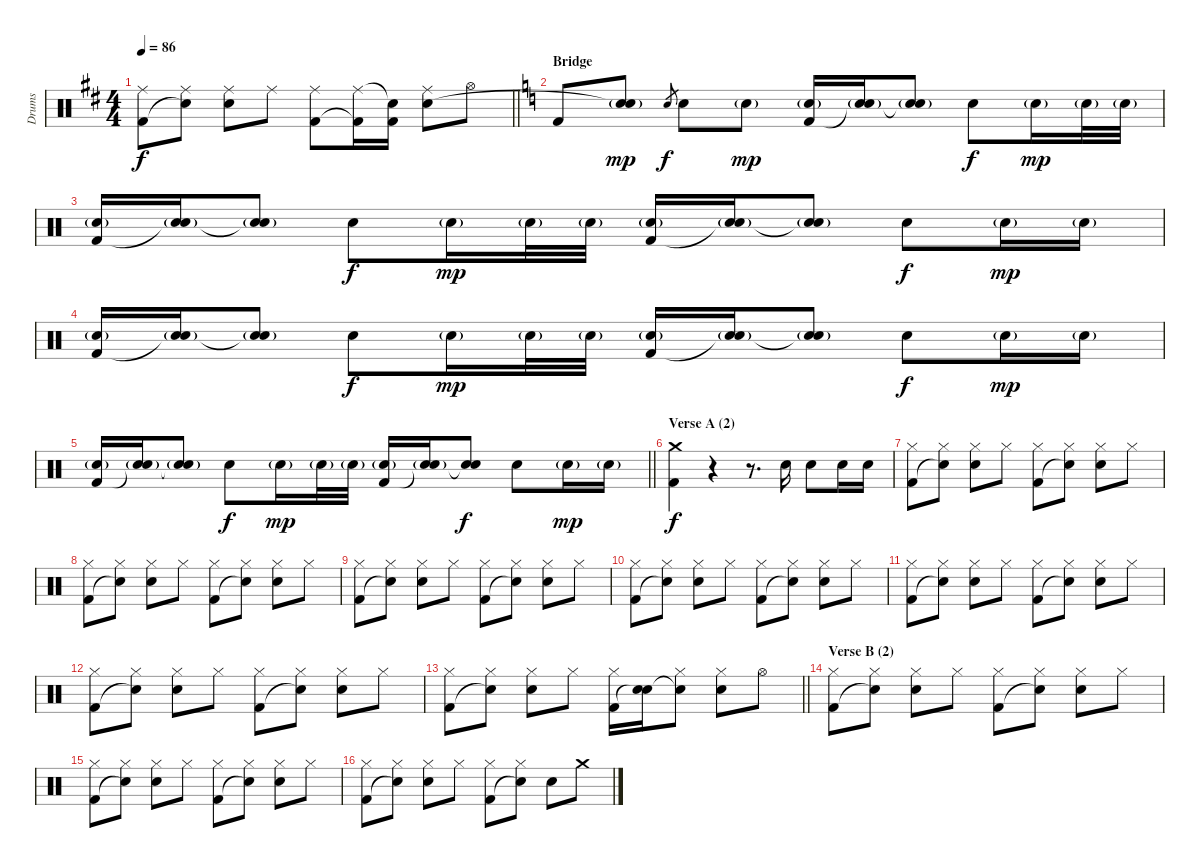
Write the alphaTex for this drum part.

\track ("Drums" "Drums") {instrument percussion}
\staff {score}
\articulation defaults
\ts (4 4)
\tempo 86
\clef neutral
\barLineRight lightlight
\ks bminor
("Ride (middle)" "Kick (hit) 2").8{dy f} ("Ride (middle)" "Snare (hit)"{t}).8 ("Ride (middle)" "Electric Snare (hit)").8 "Ride (middle)".8 ("Ride (middle)" "Kick (hit) 2").8 ("Ride (middle)" "Kick (hit) 2"{t}).16 ("Snare (hit)"{t} "Kick (hit) 2").16 ("Ride (middle)" "Electric Snare (hit)").8 "Hi-Hat (open)".8 |
\section ("" "Bridge")
\ks aminor "Kick (hit) 2".8
("Electric Snare (hit)"{g} "Snare (hit)"{t}).8{dy mp} "Electric Snare (hit)".8{gr dy f} "Electric Snare (hit)".8 "Electric Snare (hit)"{g}.8{dy mp} ("Electric Snare (hit)"{g} "Kick (hit) 2").16 ("Electric Snare (hit)"{g} "Snare (hit)"{t}).16 ("Electric Snare (hit)"{g} "Snare (hit)"{t}).8 "Electric Snare (hit)".8{dy f} "Electric Snare (hit)"{g}.16{dy mp} "Electric Snare (hit)"{g}.32 "Electric Snare (hit)"{g}.32 |
("Electric Snare (hit)"{g} "Kick (hit) 2").16 ("Electric Snare (hit)"{g} "Snare (hit)"{t}).16 ("Electric Snare (hit)"{g} "Snare (hit)"{t}).8 "Electric Snare (hit)".8{dy f} "Electric Snare (hit)"{g}.16{dy mp} "Electric Snare (hit)"{g}.32 "Electric Snare (hit)"{g}.32 ("Electric Snare (hit)"{g} "Kick (hit) 2").16 ("Electric Snare (hit)"{g} "Snare (hit)"{t}).16 ("Electric Snare (hit)"{g} "Snare (hit)"{t}).8 "Electric Snare (hit)".8{dy f} "Electric Snare (hit)"{g}.16{dy mp} "Electric Snare (hit)"{g}.16 |
("Electric Snare (hit)"{g} "Kick (hit) 2").16 ("Electric Snare (hit)"{g} "Snare (hit)"{t}).16 ("Electric Snare (hit)"{g} "Snare (hit)"{t}).8 "Electric Snare (hit)".8{dy f} "Electric Snare (hit)"{g}.16{dy mp} "Electric Snare (hit)"{g}.32 "Electric Snare (hit)"{g}.32 ("Electric Snare (hit)"{g} "Kick (hit) 2").16 ("Electric Snare (hit)"{g} "Snare (hit)"{t}).16 ("Electric Snare (hit)"{g} "Snare (hit)"{t}).8 "Electric Snare (hit)".8{dy f} "Electric Snare (hit)"{g}.16{dy mp} "Electric Snare (hit)"{g}.16 |
\barLineRight lightlight
("Electric Snare (hit)"{g} "Kick (hit) 2").16 ("Electric Snare (hit)"{g} "Snare (hit)"{t}).16 ("Electric Snare (hit)"{g} "Snare (hit)"{t}).8 "Electric Snare (hit)".8{dy f} "Electric Snare (hit)"{g}.16{dy mp} "Electric Snare (hit)"{g}.32 "Electric Snare (hit)"{g}.32 ("Electric Snare (hit)"{g} "Kick (hit) 2").16 ("Electric Snare (hit)"{g} "Snare (hit)"{t}).16 ("Electric Snare (hit)" "Snare (hit)"{t}).8{dy f} "Electric Snare (hit)".8 "Electric Snare (hit)"{g}.16{dy mp} "Electric Snare (hit)"{g}.16 |
\section ("" "Verse A (2)")
("Crash medium (hit)" "Kick (hit) 2").4{dy f} r.4 r.8{d} "Electric Snare (hit)".16 "Electric Snare (hit)".8 "Electric Snare (hit)".16 "Electric Snare (hit)".16 |
("Hi-Hat (closed)" "Kick (hit) 2").8 ("Hi-Hat (closed)" "Snare (hit)"{t}).8 ("Hi-Hat (closed)" "Electric Snare (hit)").8 "Hi-Hat (closed)".8 ("Hi-Hat (closed)" "Kick (hit) 2").8 ("Hi-Hat (closed)" "Snare (hit)"{t}).8 ("Hi-Hat (closed)" "Electric Snare (hit)").8 "Hi-Hat (closed)".8 |
("Hi-Hat (closed)" "Kick (hit) 2").8 ("Hi-Hat (closed)" "Snare (hit)"{t}).8 ("Hi-Hat (closed)" "Electric Snare (hit)").8 "Hi-Hat (closed)".8 ("Hi-Hat (closed)" "Kick (hit) 2").8 ("Hi-Hat (closed)" "Snare (hit)"{t}).8 ("Hi-Hat (closed)" "Electric Snare (hit)").8 "Hi-Hat (closed)".8 |
("Hi-Hat (closed)" "Kick (hit) 2").8 ("Hi-Hat (closed)" "Snare (hit)"{t}).8 ("Hi-Hat (closed)" "Electric Snare (hit)").8 "Hi-Hat (closed)".8 ("Hi-Hat (closed)" "Kick (hit) 2").8 ("Hi-Hat (closed)" "Snare (hit)"{t}).8 ("Hi-Hat (closed)" "Electric Snare (hit)").8 "Hi-Hat (closed)".8 |
("Hi-Hat (closed)" "Kick (hit) 2").8 ("Hi-Hat (closed)" "Snare (hit)"{t}).8 ("Hi-Hat (closed)" "Electric Snare (hit)").8 "Hi-Hat (closed)".8 ("Hi-Hat (closed)" "Kick (hit) 2").8 ("Hi-Hat (closed)" "Snare (hit)"{t}).8 ("Hi-Hat (closed)" "Electric Snare (hit)").8 "Hi-Hat (closed)".8 |
("Hi-Hat (closed)" "Kick (hit) 2").8 ("Hi-Hat (closed)" "Snare (hit)"{t}).8 ("Hi-Hat (closed)" "Electric Snare (hit)").8 "Hi-Hat (closed)".8 ("Hi-Hat (closed)" "Kick (hit) 2").8 ("Hi-Hat (closed)" "Snare (hit)"{t}).8 ("Hi-Hat (closed)" "Electric Snare (hit)").8 "Hi-Hat (closed)".8 |
("Hi-Hat (closed)" "Kick (hit) 2").8 ("Hi-Hat (closed)" "Snare (hit)"{t}).8 ("Hi-Hat (closed)" "Electric Snare (hit)").8 "Hi-Hat (closed)".8 ("Hi-Hat (closed)" "Kick (hit) 2").8 ("Hi-Hat (closed)" "Snare (hit)"{t}).8 ("Hi-Hat (closed)" "Electric Snare (hit)").8 "Hi-Hat (closed)".8 |
\barLineRight lightlight
("Hi-Hat (closed)" "Kick (hit) 2").8 ("Hi-Hat (closed)" "Snare (hit)"{t}).8 ("Hi-Hat (closed)" "Electric Snare (hit)").8 "Hi-Hat (closed)".8 ("Hi-Hat (closed)" "Kick (hit) 2").16 ("Electric Snare (hit)" "Snare (hit)"{t}).16 ("Hi-Hat (closed)" "Snare (hit)"{t}).8 ("Hi-Hat (closed)" "Electric Snare (hit)").8 "Hi-Hat (open)".8 |
\section ("" "Verse B (2)")
("Hi-Hat (closed)" "Kick (hit) 2").8 ("Hi-Hat (closed)" "Snare (hit)"{t}).8 ("Hi-Hat (closed)" "Electric Snare (hit)").8 "Hi-Hat (closed)".8 ("Hi-Hat (closed)" "Kick (hit) 2").8 ("Hi-Hat (closed)" "Snare (hit)"{t}).8 ("Hi-Hat (closed)" "Electric Snare (hit)").8 "Hi-Hat (closed)".8 |
("Hi-Hat (closed)" "Kick (hit) 2").8 ("Hi-Hat (closed)" "Snare (hit)"{t}).8 ("Hi-Hat (closed)" "Electric Snare (hit)").8 "Hi-Hat (closed)".8 ("Hi-Hat (closed)" "Kick (hit) 2").8 ("Hi-Hat (closed)" "Snare (hit)"{t}).8 ("Hi-Hat (closed)" "Electric Snare (hit)").8 "Hi-Hat (closed)".8 |
("Hi-Hat (closed)" "Kick (hit) 2").8 ("Hi-Hat (closed)" "Snare (hit)"{t}).8 ("Hi-Hat (closed)" "Electric Snare (hit)").8 "Hi-Hat (closed)".8 ("Hi-Hat (closed)" "Kick (hit) 2").8 ("Hi-Hat (closed)" "Snare (hit)"{t}).8 "Electric Snare (hit)".8 "Crash medium (hit)".8
